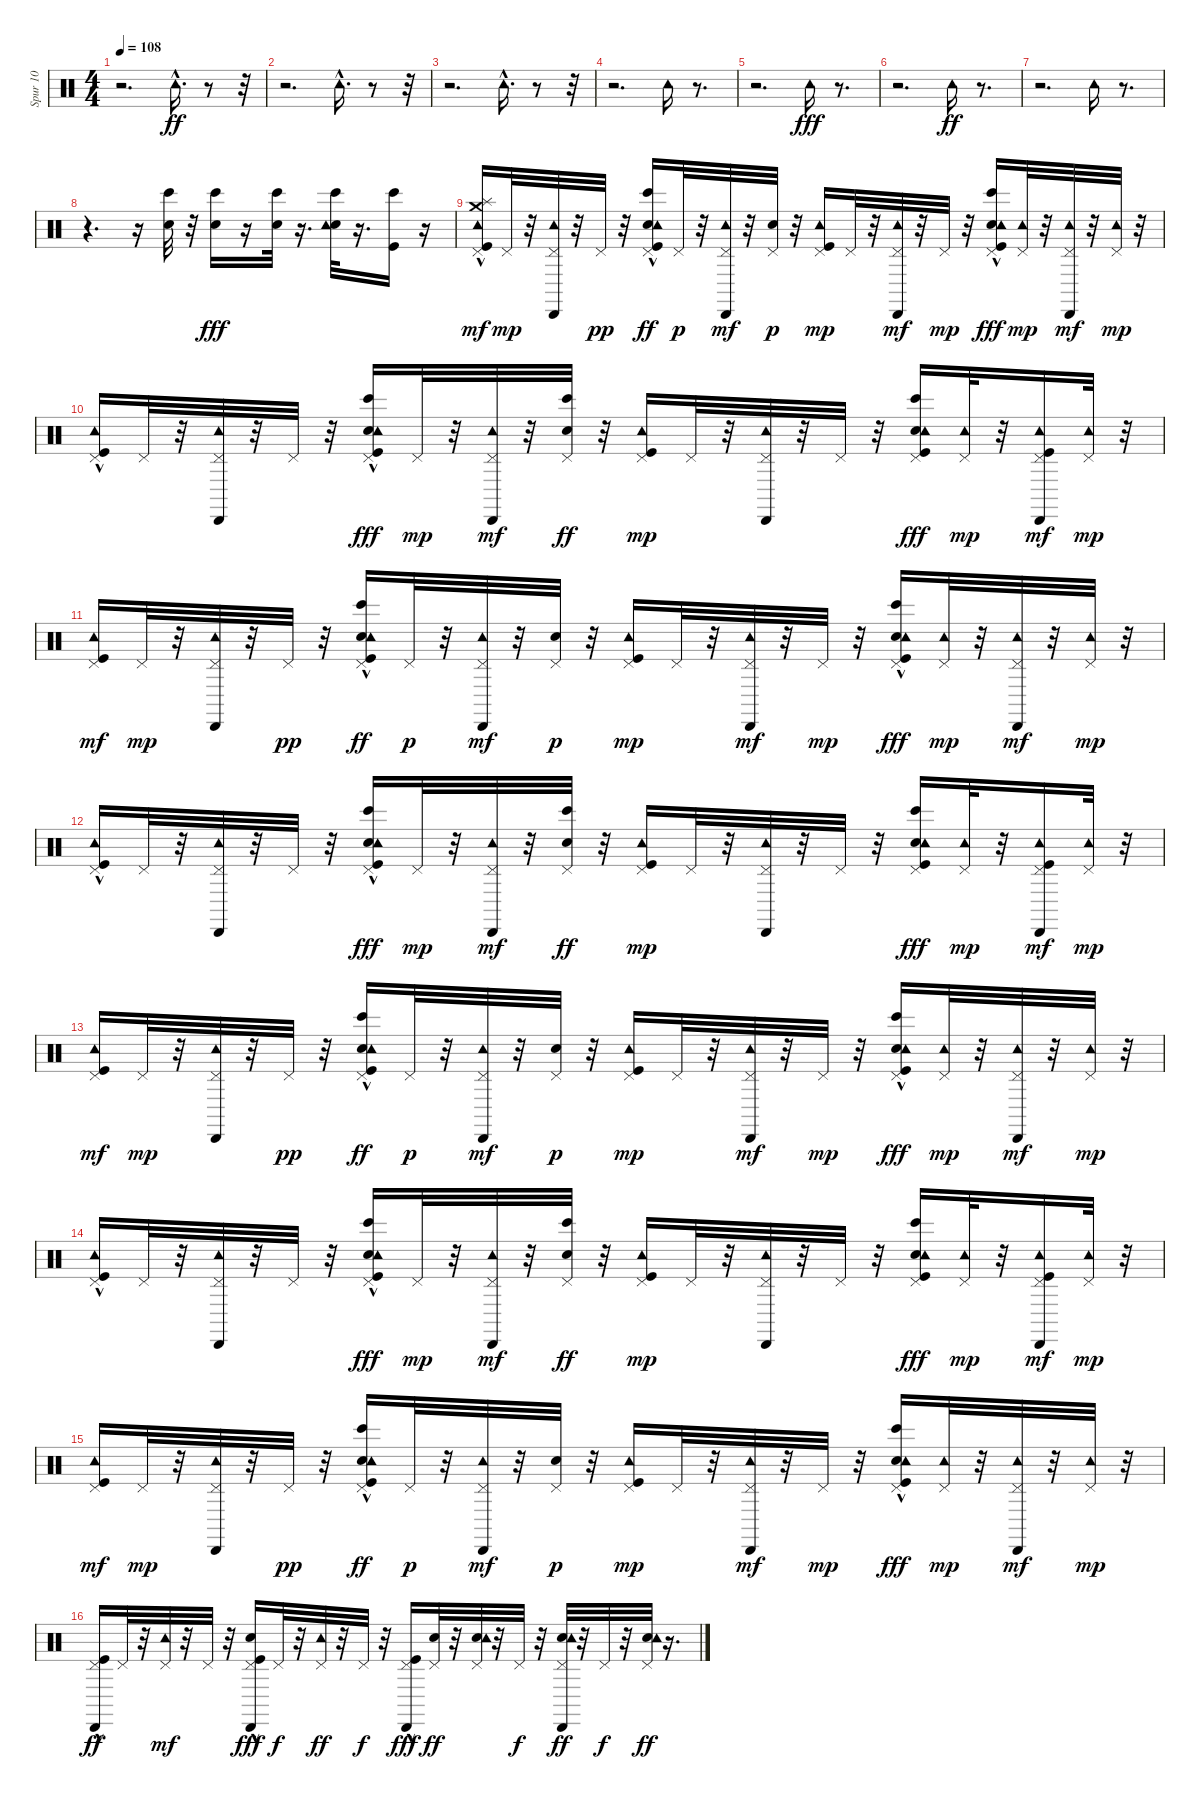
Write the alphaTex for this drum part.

\track ("Spur 10" "Spur 10") {instrument percussion}
\staff {score}
\articulation defaults
\ts (4 4)
\tempo 108
\clef neutral
\ks c
r.2{d dy ff} "Tambourine (hit)"{hac}.16{d} r.8 r.32 |
r.2{d} "Tambourine (hit)"{hac}.16{d} r.8 r.32 |
r.2{d} "Tambourine (hit)"{hac}.16{d} r.8 r.32 |
r.2{d} "Tambourine (hit)".16 r.8{d} |
r.2{d} "Tambourine (hit)".16{dy fff} r.8{d} |
r.2{d} "Tambourine (hit)".16{dy ff} r.8{d} |
r.2{d} "Tambourine (hit)".16 r.8{d} |
r.4{d} r.16 ("Snare (hit) 2" "Bongo High (hit)").32 r.32 ("Snare (hit) 2" "Bongo High (hit)").16{dy fff} r.16 ("Snare (hit) 2" "Bongo High (hit)").32 r.16{d} ("Snare (hit) 2" "Tambourine (hit)" "Bongo High (hit)").32 r.16{d} ("Kick (hit)" "Bongo High (hit)").16 r.16 |
("Kick (hit)" "Tambourine (hit)" "Pedal Hi-Hat (hit)" "Splash (hit)"{hac} "Crash medium (hit)").16{dy mf} "Pedal Hi-Hat (hit)".32{dy mp} r.32 ("Tambourine (hit)" "Pedal Hi-Hat (hit)" "Cabasa (hit)").32 r.32 "Pedal Hi-Hat (hit)".32{dy pp} r.32 ("Kick (hit)"{hac} "Snare (hit) 2"{hac} "Tambourine (hit)" "Pedal Hi-Hat (hit)" "Bongo High (hit)").16{dy ff} "Pedal Hi-Hat (hit)".32{dy p} r.32 ("Tambourine (hit)" "Pedal Hi-Hat (hit)" "Cabasa (hit)").32{dy mf} r.32 ("Snare (hit) 2" "Pedal Hi-Hat (hit)").32{dy p} r.32 ("Kick (hit)" "Tambourine (hit)" "Pedal Hi-Hat (hit)").16{dy mp} "Pedal Hi-Hat (hit)".32 r.32 ("Tambourine (hit)" "Pedal Hi-Hat (hit)" "Cabasa (hit)").32{dy mf} r.32 "Pedal Hi-Hat (hit)".32{dy mp} r.32 ("Snare (hit) 2" "Kick (hit)"{hac} "Tambourine (hit)" "Pedal Hi-Hat (hit)" "Bongo High (hit)").16{dy fff} ("Tambourine (hit)" "Pedal Hi-Hat (hit)").32{dy mp} r.32 ("Tambourine (hit)" "Pedal Hi-Hat (hit)" "Cabasa (hit)").32{dy mf} r.32 ("Tambourine (hit)" "Pedal Hi-Hat (hit)").32{dy mp} r.32 |
("Kick (hit)"{hac} "Tambourine (hit)" "Pedal Hi-Hat (hit)").16 "Pedal Hi-Hat (hit)".32 r.32 ("Tambourine (hit)" "Pedal Hi-Hat (hit)" "Cabasa (hit)").32 r.32 "Pedal Hi-Hat (hit)".32 r.32 ("Kick (hit)"{hac} "Snare (hit) 2" "Tambourine (hit)" "Pedal Hi-Hat (hit)" "Bongo High (hit)"{hac}).16{dy fff} "Pedal Hi-Hat (hit)".32{dy mp} r.32 ("Tambourine (hit)" "Pedal Hi-Hat (hit)" "Cabasa (hit)").32{dy mf} r.32 ("Snare (hit) 2" "Pedal Hi-Hat (hit)" "Bongo High (hit)").32{dy ff} r.32 ("Kick (hit)" "Tambourine (hit)" "Pedal Hi-Hat (hit)").16{dy mp} "Pedal Hi-Hat (hit)".32 r.32 ("Tambourine (hit)" "Pedal Hi-Hat (hit)" "Cabasa (hit)").32 r.32 "Pedal Hi-Hat (hit)".32 r.32 ("Snare (hit) 2" "Kick (hit)" "Tambourine (hit)" "Pedal Hi-Hat (hit)" "Bongo High (hit)").16{dy fff} ("Tambourine (hit)" "Pedal Hi-Hat (hit)").32{dy mp} r.32 ("Kick (hit)" "Tambourine (hit)" "Pedal Hi-Hat (hit)" "Cabasa (hit)").16{dy mf} ("Tambourine (hit)" "Pedal Hi-Hat (hit)").32{dy mp} r.32 |
("Kick (hit)" "Tambourine (hit)" "Pedal Hi-Hat (hit)").16{dy mf} "Pedal Hi-Hat (hit)".32{dy mp} r.32 ("Tambourine (hit)" "Pedal Hi-Hat (hit)" "Cabasa (hit)").32 r.32 "Pedal Hi-Hat (hit)".32{dy pp} r.32 ("Kick (hit)"{hac} "Snare (hit) 2"{hac} "Tambourine (hit)" "Pedal Hi-Hat (hit)" "Bongo High (hit)").16{dy ff} "Pedal Hi-Hat (hit)".32{dy p} r.32 ("Tambourine (hit)" "Pedal Hi-Hat (hit)" "Cabasa (hit)").32{dy mf} r.32 ("Snare (hit) 2" "Pedal Hi-Hat (hit)").32{dy p} r.32 ("Kick (hit)" "Tambourine (hit)" "Pedal Hi-Hat (hit)").16{dy mp} "Pedal Hi-Hat (hit)".32 r.32 ("Tambourine (hit)" "Pedal Hi-Hat (hit)" "Cabasa (hit)").32{dy mf} r.32 "Pedal Hi-Hat (hit)".32{dy mp} r.32 ("Snare (hit) 2" "Kick (hit)"{hac} "Tambourine (hit)" "Pedal Hi-Hat (hit)" "Bongo High (hit)").16{dy fff} ("Tambourine (hit)" "Pedal Hi-Hat (hit)").32{dy mp} r.32 ("Tambourine (hit)" "Pedal Hi-Hat (hit)" "Cabasa (hit)").32{dy mf} r.32 ("Tambourine (hit)" "Pedal Hi-Hat (hit)").32{dy mp} r.32 |
("Kick (hit)"{hac} "Tambourine (hit)" "Pedal Hi-Hat (hit)").16 "Pedal Hi-Hat (hit)".32 r.32 ("Tambourine (hit)" "Pedal Hi-Hat (hit)" "Cabasa (hit)").32 r.32 "Pedal Hi-Hat (hit)".32 r.32 ("Kick (hit)"{hac} "Snare (hit) 2" "Tambourine (hit)" "Pedal Hi-Hat (hit)" "Bongo High (hit)"{hac}).16{dy fff} "Pedal Hi-Hat (hit)".32{dy mp} r.32 ("Tambourine (hit)" "Pedal Hi-Hat (hit)" "Cabasa (hit)").32{dy mf} r.32 ("Snare (hit) 2" "Pedal Hi-Hat (hit)" "Bongo High (hit)").32{dy ff} r.32 ("Kick (hit)" "Tambourine (hit)" "Pedal Hi-Hat (hit)").16{dy mp} "Pedal Hi-Hat (hit)".32 r.32 ("Tambourine (hit)" "Pedal Hi-Hat (hit)" "Cabasa (hit)").32 r.32 "Pedal Hi-Hat (hit)".32 r.32 ("Snare (hit) 2" "Kick (hit)" "Tambourine (hit)" "Pedal Hi-Hat (hit)" "Bongo High (hit)").16{dy fff} ("Tambourine (hit)" "Pedal Hi-Hat (hit)").32{dy mp} r.32 ("Kick (hit)" "Tambourine (hit)" "Pedal Hi-Hat (hit)" "Cabasa (hit)").16{dy mf} ("Tambourine (hit)" "Pedal Hi-Hat (hit)").32{dy mp} r.32 |
("Kick (hit)" "Tambourine (hit)" "Pedal Hi-Hat (hit)").16{dy mf} "Pedal Hi-Hat (hit)".32{dy mp} r.32 ("Tambourine (hit)" "Pedal Hi-Hat (hit)" "Cabasa (hit)").32 r.32 "Pedal Hi-Hat (hit)".32{dy pp} r.32 ("Kick (hit)"{hac} "Snare (hit) 2"{hac} "Tambourine (hit)" "Pedal Hi-Hat (hit)" "Bongo High (hit)").16{dy ff} "Pedal Hi-Hat (hit)".32{dy p} r.32 ("Tambourine (hit)" "Pedal Hi-Hat (hit)" "Cabasa (hit)").32{dy mf} r.32 ("Snare (hit) 2" "Pedal Hi-Hat (hit)").32{dy p} r.32 ("Kick (hit)" "Tambourine (hit)" "Pedal Hi-Hat (hit)").16{dy mp} "Pedal Hi-Hat (hit)".32 r.32 ("Tambourine (hit)" "Pedal Hi-Hat (hit)" "Cabasa (hit)").32{dy mf} r.32 "Pedal Hi-Hat (hit)".32{dy mp} r.32 ("Snare (hit) 2" "Kick (hit)"{hac} "Tambourine (hit)" "Pedal Hi-Hat (hit)" "Bongo High (hit)").16{dy fff} ("Tambourine (hit)" "Pedal Hi-Hat (hit)").32{dy mp} r.32 ("Tambourine (hit)" "Pedal Hi-Hat (hit)" "Cabasa (hit)").32{dy mf} r.32 ("Tambourine (hit)" "Pedal Hi-Hat (hit)").32{dy mp} r.32 |
("Kick (hit)"{hac} "Tambourine (hit)" "Pedal Hi-Hat (hit)").16 "Pedal Hi-Hat (hit)".32 r.32 ("Tambourine (hit)" "Pedal Hi-Hat (hit)" "Cabasa (hit)").32 r.32 "Pedal Hi-Hat (hit)".32 r.32 ("Kick (hit)"{hac} "Snare (hit) 2" "Tambourine (hit)" "Pedal Hi-Hat (hit)" "Bongo High (hit)"{hac}).16{dy fff} "Pedal Hi-Hat (hit)".32{dy mp} r.32 ("Tambourine (hit)" "Pedal Hi-Hat (hit)" "Cabasa (hit)").32{dy mf} r.32 ("Snare (hit) 2" "Pedal Hi-Hat (hit)" "Bongo High (hit)").32{dy ff} r.32 ("Kick (hit)" "Tambourine (hit)" "Pedal Hi-Hat (hit)").16{dy mp} "Pedal Hi-Hat (hit)".32 r.32 ("Tambourine (hit)" "Pedal Hi-Hat (hit)" "Cabasa (hit)").32 r.32 "Pedal Hi-Hat (hit)".32 r.32 ("Snare (hit) 2" "Kick (hit)" "Tambourine (hit)" "Pedal Hi-Hat (hit)" "Bongo High (hit)").16{dy fff} ("Tambourine (hit)" "Pedal Hi-Hat (hit)").32{dy mp} r.32 ("Kick (hit)" "Tambourine (hit)" "Pedal Hi-Hat (hit)" "Cabasa (hit)").16{dy mf} ("Tambourine (hit)" "Pedal Hi-Hat (hit)").32{dy mp} r.32 |
("Kick (hit)" "Tambourine (hit)" "Pedal Hi-Hat (hit)").16{dy mf} "Pedal Hi-Hat (hit)".32{dy mp} r.32 ("Tambourine (hit)" "Pedal Hi-Hat (hit)" "Cabasa (hit)").32 r.32 "Pedal Hi-Hat (hit)".32{dy pp} r.32 ("Kick (hit)"{hac} "Snare (hit) 2"{hac} "Tambourine (hit)" "Pedal Hi-Hat (hit)" "Bongo High (hit)").16{dy ff} "Pedal Hi-Hat (hit)".32{dy p} r.32 ("Tambourine (hit)" "Pedal Hi-Hat (hit)" "Cabasa (hit)").32{dy mf} r.32 ("Snare (hit) 2" "Pedal Hi-Hat (hit)").32{dy p} r.32 ("Kick (hit)" "Tambourine (hit)" "Pedal Hi-Hat (hit)").16{dy mp} "Pedal Hi-Hat (hit)".32 r.32 ("Tambourine (hit)" "Pedal Hi-Hat (hit)" "Cabasa (hit)").32{dy mf} r.32 "Pedal Hi-Hat (hit)".32{dy mp} r.32 ("Snare (hit) 2" "Kick (hit)"{hac} "Tambourine (hit)" "Pedal Hi-Hat (hit)" "Bongo High (hit)").16{dy fff} ("Tambourine (hit)" "Pedal Hi-Hat (hit)").32{dy mp} r.32 ("Tambourine (hit)" "Pedal Hi-Hat (hit)" "Cabasa (hit)").32{dy mf} r.32 ("Tambourine (hit)" "Pedal Hi-Hat (hit)").32{dy mp} r.32 |
("Kick (hit)"{hac} "Pedal Hi-Hat (hit)" "Cabasa (hit)"{hac}).16{dy ff} "Pedal Hi-Hat (hit)".32 r.32 ("Pedal Hi-Hat (hit)" "Tambourine (hit)").32{dy mf} r.32 "Pedal Hi-Hat (hit)".32 r.32 ("Kick (hit)" "Snare (hit) 2"{hac} "Pedal Hi-Hat (hit)" "Cabasa (hit)"{hac}).16{dy fff} "Pedal Hi-Hat (hit)".32{dy f} r.32 ("Pedal Hi-Hat (hit)" "Tambourine (hit)").32{dy ff} r.32 "Pedal Hi-Hat (hit)".32{dy f} r.32 ("Kick (hit)" "Pedal Hi-Hat (hit)" "Cabasa (hit)"{hac}).16{dy fff} ("Snare (hit) 2" "Pedal Hi-Hat (hit)").32{dy ff} r.32 ("Snare (hit) 2" "Pedal Hi-Hat (hit)" "Tambourine (hit)").32 r.32 "Pedal Hi-Hat (hit)".32{dy f} r.32 ("Snare (hit) 2" "Pedal Hi-Hat (hit)" "Tambourine (hit)" "Cabasa (hit)").32{dy ff} r.32 "Pedal Hi-Hat (hit)".32{dy f} r.32 ("Snare (hit) 2" "Pedal Hi-Hat (hit)" "Tambourine (hit)").32{dy ff} r.16{d}
